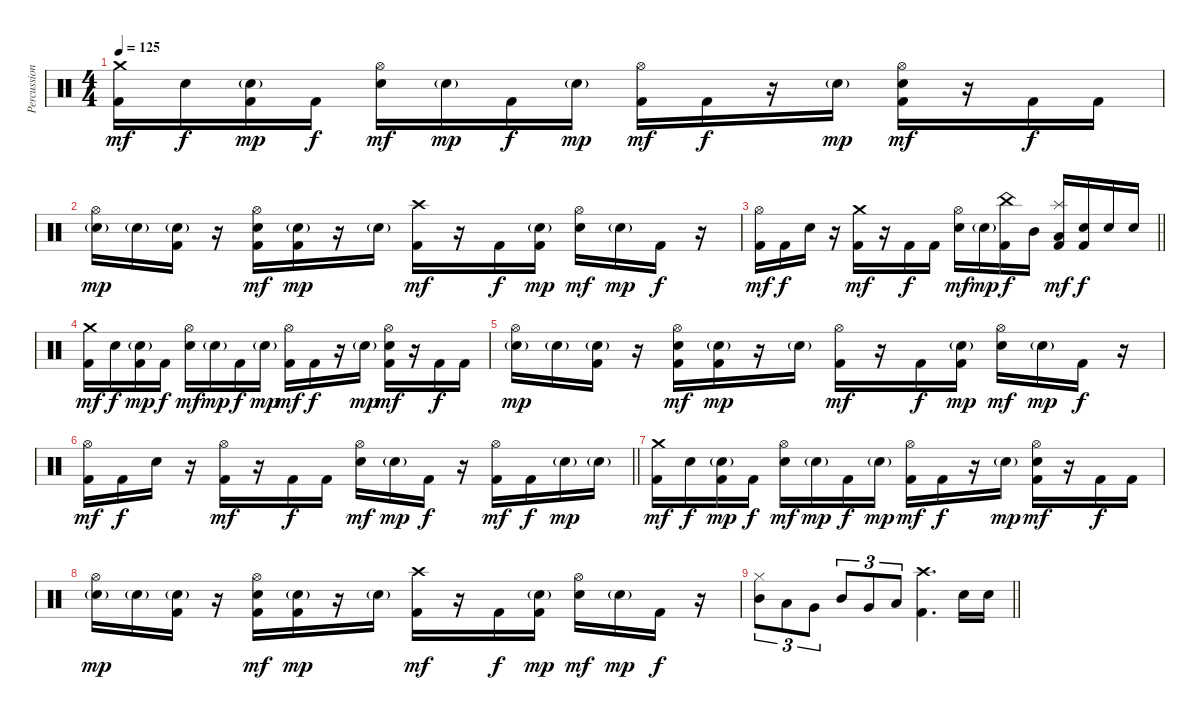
\track ("Percussion" "Percussion") {instrument percussion}
\staff {score}
\articulation defaults
\ts (4 4)
\tempo 125
\clef neutral
\ks c
("Crash medium (hit)" "Kick (hit) 2").16{dy mf} "Electric Snare (hit)".16{dy f} ("Electric Snare (hit)"{g} "Kick (hit) 2").16{dy mp} "Kick (hit) 2".16{dy f} ("Hi-Hat (open)" "Electric Snare (hit)").16{dy mf} "Electric Snare (hit)"{g}.16{dy mp} "Kick (hit) 2".16{dy f} "Electric Snare (hit)"{g}.16{dy mp} ("Hi-Hat (open)" "Kick (hit) 2").16{dy mf} "Kick (hit) 2".16{dy f} r.16 "Electric Snare (hit)"{g}.16{dy mp} ("Hi-Hat (open)" "Electric Snare (hit)" "Kick (hit) 2").16{dy mf} r.16 "Kick (hit) 2".16{dy f} "Kick (hit) 2".16 |
("Hi-Hat (open)" "Electric Snare (hit)"{g}).16{dy mp} "Electric Snare (hit)"{g}.16 ("Electric Snare (hit)"{g} "Kick (hit) 2").16 r.16 ("Hi-Hat (open)" "Electric Snare (hit)" "Kick (hit) 2").16{dy mf} ("Electric Snare (hit)"{g} "Kick (hit) 2").16{dy mp} r.16 "Electric Snare (hit)"{g}.16 ("Crash high (hit)" "Kick (hit) 2").16{dy mf} r.16 "Kick (hit) 2".16{dy f} ("Electric Snare (hit)"{g} "Kick (hit) 2").16{dy mp} ("Hi-Hat (open)" "Electric Snare (hit)").16{dy mf} "Electric Snare (hit)"{g}.16{dy mp} "Kick (hit) 2".16{dy f} r.16 |
\barLineRight lightlight
("Hi-Hat (open)" "Kick (hit) 2").16{dy mf} "Kick (hit) 2".16{dy f} "Electric Snare (hit)".16 r.16 ("Crash medium (hit)" "Kick (hit) 2").16{dy mf} r.16 "Kick (hit) 2".16{dy f} "Kick (hit) 2".16 ("Hi-Hat (open)" "Electric Snare (hit)").16{dy mf} "Electric Snare (hit)"{g}.16{dy mp} ("China (hit)" "Kick (hit) 2").16{dy f} "Mid Tom (hit)".16 ("Splash (hit)" "Low Tom (hit)" "Kick (hit) 2").16{dy mf} ("Electric Snare (hit)" "Kick (hit) 2").16{dy f} "Electric Snare (hit)".16 "Electric Snare (hit)".16 |
("Crash medium (hit)" "Kick (hit) 2").16{dy mf} "Electric Snare (hit)".16{dy f} ("Electric Snare (hit)"{g} "Kick (hit) 2").16{dy mp} "Kick (hit) 2".16{dy f} ("Hi-Hat (open)" "Electric Snare (hit)").16{dy mf} "Electric Snare (hit)"{g}.16{dy mp} "Kick (hit) 2".16{dy f} "Electric Snare (hit)"{g}.16{dy mp} ("Hi-Hat (open)" "Kick (hit) 2").16{dy mf} "Kick (hit) 2".16{dy f} r.16 "Electric Snare (hit)"{g}.16{dy mp} ("Hi-Hat (open)" "Electric Snare (hit)" "Kick (hit) 2").16{dy mf} r.16 "Kick (hit) 2".16{dy f} "Kick (hit) 2".16 |
("Hi-Hat (open)" "Electric Snare (hit)"{g}).16{dy mp} "Electric Snare (hit)"{g}.16 ("Electric Snare (hit)"{g} "Kick (hit) 2").16 r.16 ("Hi-Hat (open)" "Electric Snare (hit)" "Kick (hit) 2").16{dy mf} ("Electric Snare (hit)"{g} "Kick (hit) 2").16{dy mp} r.16 "Electric Snare (hit)"{g}.16 ("Hi-Hat (open)" "Kick (hit) 2").16{dy mf} r.16 "Kick (hit) 2".16{dy f} ("Electric Snare (hit)"{g} "Kick (hit) 2").16{dy mp} ("Hi-Hat (open)" "Electric Snare (hit)").16{dy mf} "Electric Snare (hit)"{g}.16{dy mp} "Kick (hit) 2".16{dy f} r.16 |
\barLineRight lightlight
("Hi-Hat (open)" "Kick (hit) 2").16{dy mf} "Kick (hit) 2".16{dy f} "Electric Snare (hit)".16 r.16 ("Hi-Hat (open)" "Kick (hit) 2").16{dy mf} r.16 "Kick (hit) 2".16{dy f} "Kick (hit) 2".16 ("Hi-Hat (open)" "Electric Snare (hit)").16{dy mf} "Electric Snare (hit)"{g}.16{dy mp} "Kick (hit) 2".16{dy f} r.16 ("Hi-Hat (open)" "Kick (hit) 2").16{dy mf} "Kick (hit) 2".16{dy f} "Electric Snare (hit)"{g}.16{dy mp} "Electric Snare (hit)"{g}.16 |
("Crash medium (hit)" "Kick (hit) 2").16{dy mf} "Electric Snare (hit)".16{dy f} ("Electric Snare (hit)"{g} "Kick (hit) 2").16{dy mp} "Kick (hit) 2".16{dy f} ("Hi-Hat (open)" "Electric Snare (hit)").16{dy mf} "Electric Snare (hit)"{g}.16{dy mp} "Kick (hit) 2".16{dy f} "Electric Snare (hit)"{g}.16{dy mp} ("Hi-Hat (open)" "Kick (hit) 2").16{dy mf} "Kick (hit) 2".16{dy f} r.16 "Electric Snare (hit)"{g}.16{dy mp} ("Hi-Hat (open)" "Electric Snare (hit)" "Kick (hit) 2").16{dy mf} r.16 "Kick (hit) 2".16{dy f} "Kick (hit) 2".16 |
("Hi-Hat (open)" "Electric Snare (hit)"{g}).16{dy mp} "Electric Snare (hit)"{g}.16 ("Electric Snare (hit)"{g} "Kick (hit) 2").16 r.16 ("Hi-Hat (open)" "Electric Snare (hit)" "Kick (hit) 2").16{dy mf} ("Electric Snare (hit)"{g} "Kick (hit) 2").16{dy mp} r.16 "Electric Snare (hit)"{g}.16 ("Crash high (hit)" "Kick (hit) 2").16{dy mf} r.16 "Kick (hit) 2".16{dy f} ("Electric Snare (hit)"{g} "Kick (hit) 2").16{dy mp} ("Hi-Hat (open)" "Electric Snare (hit)").16{dy mf} "Electric Snare (hit)"{g}.16{dy mp} "Kick (hit) 2".16{dy f} r.16 |
\barLineRight lightlight
("Hi-Hat (closed)" "Mid Tom (hit)").8{tu (3 2)} "Low Tom (hit)".8{tu (3 2)} "Very Low Tom (hit)".8{tu (3 2)} "Mid Tom (hit)".8{tu (3 2)} "Very Low Tom (hit)".8{tu (3 2)} "Low Floor Tom (hit)".8{tu (3 2)} ("Crash high (hit)" "Kick (hit) 2").4{d} "Electric Snare (hit)".16 "Electric Snare (hit)".16
